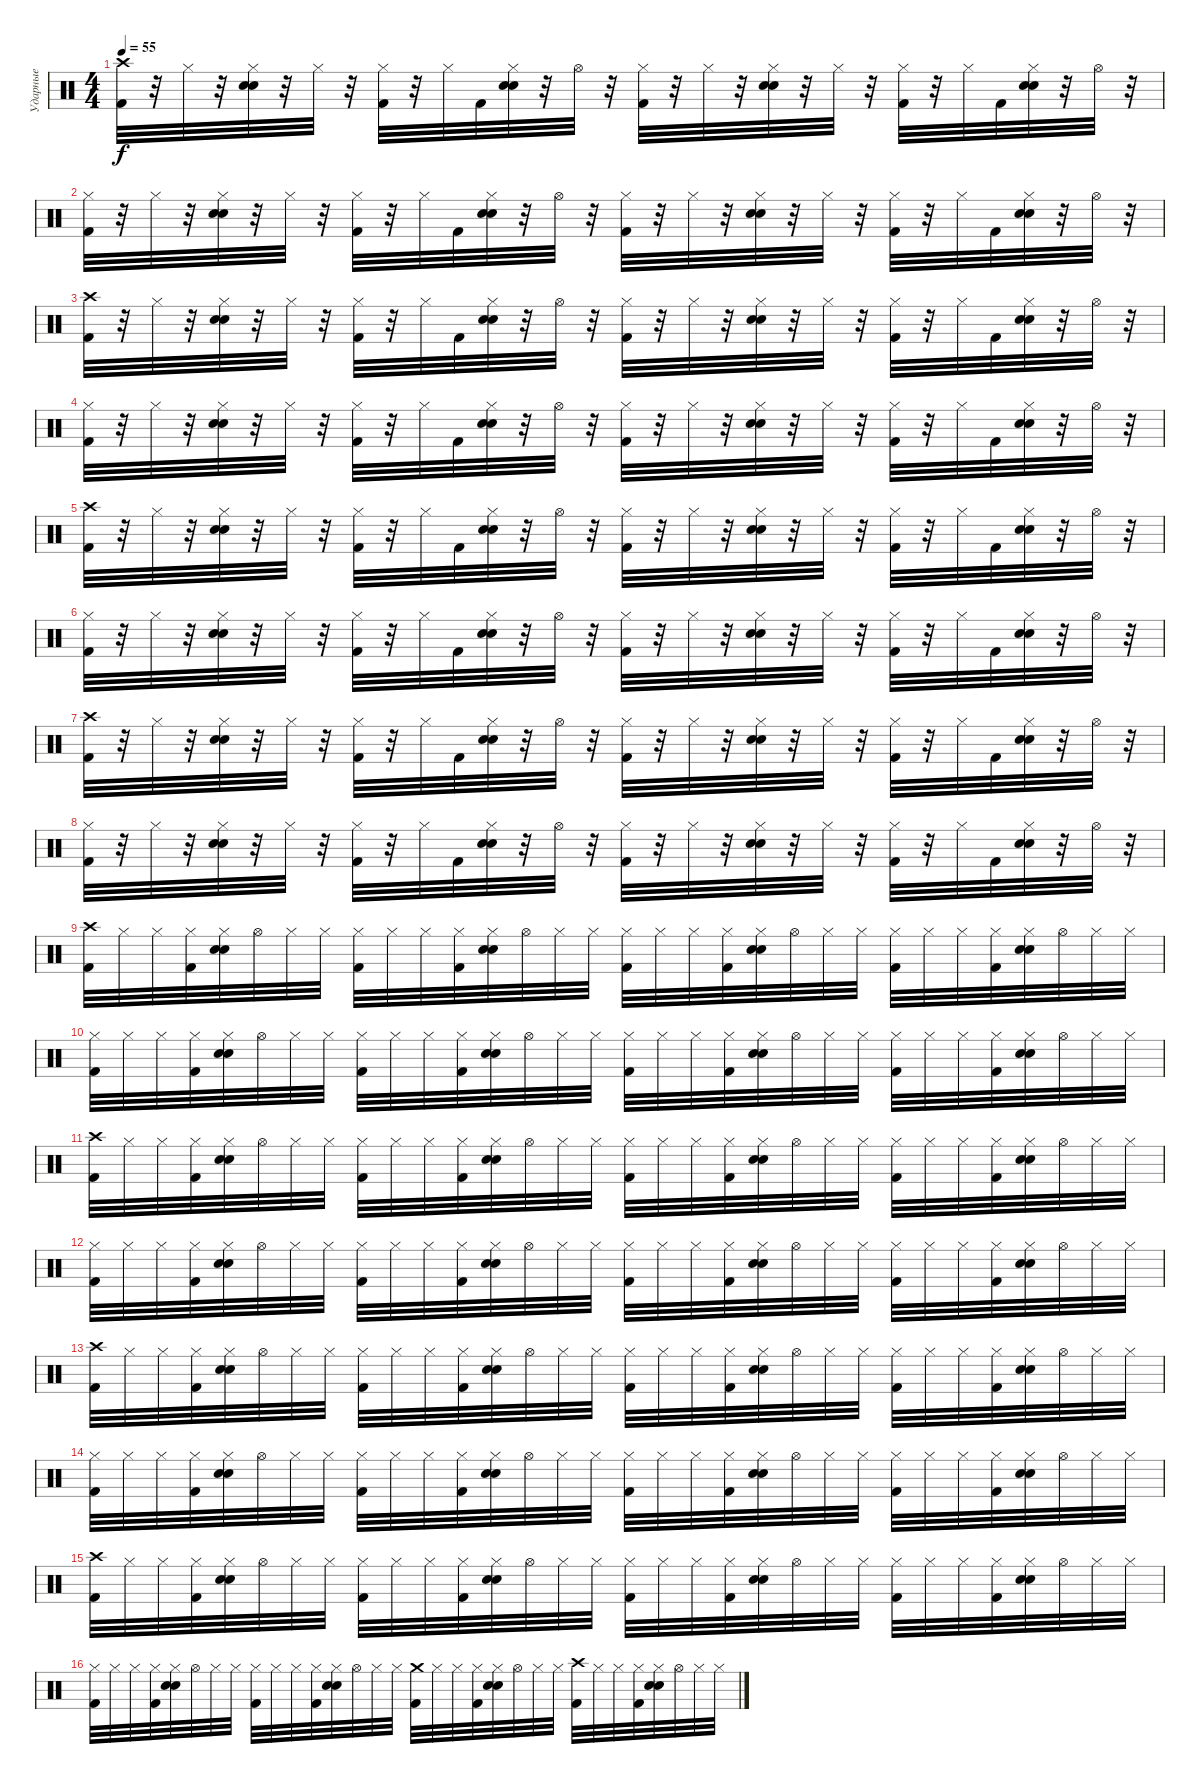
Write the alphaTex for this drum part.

\track ("Ударные" "Ударные") {instrument percussion}
\staff {score}
\articulation defaults
\ts (4 4)
\tempo 55
\clef neutral
\ks c
("Crash high (hit)" "Kick (hit) 2").32{dy f} r.32 "Hi-Hat (closed)".32 r.32 ("Hi-Hat (closed)" "Snare (hit) 2" "Electric Snare (hit)").32 r.32 "Hi-Hat (closed)".32 r.32 ("Hi-Hat (closed)" "Kick (hit) 2").32 r.32 "Hi-Hat (closed)".32 "Kick (hit) 2".32 ("Hi-Hat (closed)" "Snare (hit) 2" "Electric Snare (hit)").32 r.32 "Hi-Hat (open)".32 r.32 ("Hi-Hat (closed)" "Kick (hit) 2").32 r.32 "Hi-Hat (closed)".32 r.32 ("Hi-Hat (closed)" "Snare (hit) 2" "Electric Snare (hit)").32 r.32 "Hi-Hat (closed)".32 r.32 ("Hi-Hat (closed)" "Kick (hit) 2").32 r.32 "Hi-Hat (closed)".32 "Kick (hit) 2".32 ("Hi-Hat (closed)" "Snare (hit) 2" "Electric Snare (hit)").32 r.32 "Hi-Hat (open)".32 r.32 |
("Hi-Hat (closed)" "Kick (hit) 2").32 r.32 "Hi-Hat (closed)".32 r.32 ("Hi-Hat (closed)" "Snare (hit) 2" "Electric Snare (hit)").32 r.32 "Hi-Hat (closed)".32 r.32 ("Hi-Hat (closed)" "Kick (hit) 2").32 r.32 "Hi-Hat (closed)".32 "Kick (hit) 2".32 ("Hi-Hat (closed)" "Snare (hit) 2" "Electric Snare (hit)").32 r.32 "Hi-Hat (open)".32 r.32 ("Hi-Hat (closed)" "Kick (hit) 2").32 r.32 "Hi-Hat (closed)".32 r.32 ("Hi-Hat (closed)" "Snare (hit) 2" "Electric Snare (hit)").32 r.32 "Hi-Hat (closed)".32 r.32 ("Hi-Hat (closed)" "Kick (hit) 2").32 r.32 "Hi-Hat (closed)".32 "Kick (hit) 2".32 ("Hi-Hat (closed)" "Snare (hit) 2" "Electric Snare (hit)").32 r.32 "Hi-Hat (open)".32 r.32 |
("Crash high (hit)" "Kick (hit) 2").32 r.32 "Hi-Hat (closed)".32 r.32 ("Hi-Hat (closed)" "Snare (hit) 2" "Electric Snare (hit)").32 r.32 "Hi-Hat (closed)".32 r.32 ("Hi-Hat (closed)" "Kick (hit) 2").32 r.32 "Hi-Hat (closed)".32 "Kick (hit) 2".32 ("Hi-Hat (closed)" "Snare (hit) 2" "Electric Snare (hit)").32 r.32 "Hi-Hat (open)".32 r.32 ("Hi-Hat (closed)" "Kick (hit) 2").32 r.32 "Hi-Hat (closed)".32 r.32 ("Hi-Hat (closed)" "Snare (hit) 2" "Electric Snare (hit)").32 r.32 "Hi-Hat (closed)".32 r.32 ("Hi-Hat (closed)" "Kick (hit) 2").32 r.32 "Hi-Hat (closed)".32 "Kick (hit) 2".32 ("Hi-Hat (closed)" "Snare (hit) 2" "Electric Snare (hit)").32 r.32 "Hi-Hat (open)".32 r.32 |
("Hi-Hat (closed)" "Kick (hit) 2").32 r.32 "Hi-Hat (closed)".32 r.32 ("Hi-Hat (closed)" "Snare (hit) 2" "Electric Snare (hit)").32 r.32 "Hi-Hat (closed)".32 r.32 ("Hi-Hat (closed)" "Kick (hit) 2").32 r.32 "Hi-Hat (closed)".32 "Kick (hit) 2".32 ("Hi-Hat (closed)" "Snare (hit) 2" "Electric Snare (hit)").32 r.32 "Hi-Hat (open)".32 r.32 ("Hi-Hat (closed)" "Kick (hit) 2").32 r.32 "Hi-Hat (closed)".32 r.32 ("Hi-Hat (closed)" "Snare (hit) 2" "Electric Snare (hit)").32 r.32 "Hi-Hat (closed)".32 r.32 ("Hi-Hat (closed)" "Kick (hit) 2").32 r.32 "Hi-Hat (closed)".32 "Kick (hit) 2".32 ("Hi-Hat (closed)" "Snare (hit) 2" "Electric Snare (hit)").32 r.32 "Hi-Hat (open)".32 r.32 |
("Crash high (hit)" "Kick (hit) 2").32 r.32 "Hi-Hat (closed)".32 r.32 ("Hi-Hat (closed)" "Snare (hit) 2" "Electric Snare (hit)").32 r.32 "Hi-Hat (closed)".32 r.32 ("Hi-Hat (closed)" "Kick (hit) 2").32 r.32 "Hi-Hat (closed)".32 "Kick (hit) 2".32 ("Hi-Hat (closed)" "Snare (hit) 2" "Electric Snare (hit)").32 r.32 "Hi-Hat (open)".32 r.32 ("Hi-Hat (closed)" "Kick (hit) 2").32 r.32 "Hi-Hat (closed)".32 r.32 ("Hi-Hat (closed)" "Snare (hit) 2" "Electric Snare (hit)").32 r.32 "Hi-Hat (closed)".32 r.32 ("Hi-Hat (closed)" "Kick (hit) 2").32 r.32 "Hi-Hat (closed)".32 "Kick (hit) 2".32 ("Hi-Hat (closed)" "Snare (hit) 2" "Electric Snare (hit)").32 r.32 "Hi-Hat (open)".32 r.32 |
("Hi-Hat (closed)" "Kick (hit) 2").32 r.32 "Hi-Hat (closed)".32 r.32 ("Hi-Hat (closed)" "Snare (hit) 2" "Electric Snare (hit)").32 r.32 "Hi-Hat (closed)".32 r.32 ("Hi-Hat (closed)" "Kick (hit) 2").32 r.32 "Hi-Hat (closed)".32 "Kick (hit) 2".32 ("Hi-Hat (closed)" "Snare (hit) 2" "Electric Snare (hit)").32 r.32 "Hi-Hat (open)".32 r.32 ("Hi-Hat (closed)" "Kick (hit) 2").32 r.32 "Hi-Hat (closed)".32 r.32 ("Hi-Hat (closed)" "Snare (hit) 2" "Electric Snare (hit)").32 r.32 "Hi-Hat (closed)".32 r.32 ("Hi-Hat (closed)" "Kick (hit) 2").32 r.32 "Hi-Hat (closed)".32 "Kick (hit) 2".32 ("Hi-Hat (closed)" "Snare (hit) 2" "Electric Snare (hit)").32 r.32 "Hi-Hat (open)".32 r.32 |
("Crash high (hit)" "Kick (hit) 2").32 r.32 "Hi-Hat (closed)".32 r.32 ("Hi-Hat (closed)" "Snare (hit) 2" "Electric Snare (hit)").32 r.32 "Hi-Hat (closed)".32 r.32 ("Hi-Hat (closed)" "Kick (hit) 2").32 r.32 "Hi-Hat (closed)".32 "Kick (hit) 2".32 ("Hi-Hat (closed)" "Snare (hit) 2" "Electric Snare (hit)").32 r.32 "Hi-Hat (open)".32 r.32 ("Hi-Hat (closed)" "Kick (hit) 2").32 r.32 "Hi-Hat (closed)".32 r.32 ("Hi-Hat (closed)" "Snare (hit) 2" "Electric Snare (hit)").32 r.32 "Hi-Hat (closed)".32 r.32 ("Hi-Hat (closed)" "Kick (hit) 2").32 r.32 "Hi-Hat (closed)".32 "Kick (hit) 2".32 ("Hi-Hat (closed)" "Snare (hit) 2" "Electric Snare (hit)").32 r.32 "Hi-Hat (open)".32 r.32 |
("Hi-Hat (closed)" "Kick (hit) 2").32 r.32 "Hi-Hat (closed)".32 r.32 ("Hi-Hat (closed)" "Snare (hit) 2" "Electric Snare (hit)").32 r.32 "Hi-Hat (closed)".32 r.32 ("Hi-Hat (closed)" "Kick (hit) 2").32 r.32 "Hi-Hat (closed)".32 "Kick (hit) 2".32 ("Hi-Hat (closed)" "Snare (hit) 2" "Electric Snare (hit)").32 r.32 "Hi-Hat (open)".32 r.32 ("Hi-Hat (closed)" "Kick (hit) 2").32 r.32 "Hi-Hat (closed)".32 r.32 ("Hi-Hat (closed)" "Snare (hit) 2" "Electric Snare (hit)").32 r.32 "Hi-Hat (closed)".32 r.32 ("Hi-Hat (closed)" "Kick (hit) 2").32 r.32 "Hi-Hat (closed)".32 "Kick (hit) 2".32 ("Hi-Hat (closed)" "Snare (hit) 2" "Electric Snare (hit)").32 r.32 "Hi-Hat (open)".32 r.32 |
("Crash high (hit)" "Kick (hit) 2").32 "Hi-Hat (closed)".32 "Hi-Hat (closed)".32 ("Hi-Hat (closed)" "Kick (hit) 2").32 ("Hi-Hat (closed)" "Snare (hit) 2" "Electric Snare (hit)").32 "Hi-Hat (open)".32 "Hi-Hat (closed)".32 "Hi-Hat (closed)".32 ("Hi-Hat (closed)" "Kick (hit) 2").32 "Hi-Hat (closed)".32 "Hi-Hat (closed)".32 ("Hi-Hat (closed)" "Kick (hit) 2").32 ("Hi-Hat (closed)" "Snare (hit) 2" "Electric Snare (hit)").32 "Hi-Hat (open)".32 "Hi-Hat (closed)".32 "Hi-Hat (closed)".32 ("Hi-Hat (closed)" "Kick (hit) 2").32 "Hi-Hat (closed)".32 "Hi-Hat (closed)".32 ("Hi-Hat (closed)" "Kick (hit) 2").32 ("Hi-Hat (closed)" "Snare (hit) 2" "Electric Snare (hit)").32 "Hi-Hat (open)".32 "Hi-Hat (closed)".32 "Hi-Hat (closed)".32 ("Hi-Hat (closed)" "Kick (hit) 2").32 "Hi-Hat (closed)".32 "Hi-Hat (closed)".32 ("Hi-Hat (closed)" "Kick (hit) 2").32 ("Hi-Hat (closed)" "Snare (hit) 2" "Electric Snare (hit)").32 "Hi-Hat (open)".32 "Hi-Hat (closed)".32 "Hi-Hat (closed)".32 |
("Hi-Hat (closed)" "Kick (hit) 2").32 "Hi-Hat (closed)".32 "Hi-Hat (closed)".32 ("Hi-Hat (closed)" "Kick (hit) 2").32 ("Hi-Hat (closed)" "Snare (hit) 2" "Electric Snare (hit)").32 "Hi-Hat (open)".32 "Hi-Hat (closed)".32 "Hi-Hat (closed)".32 ("Hi-Hat (closed)" "Kick (hit) 2").32 "Hi-Hat (closed)".32 "Hi-Hat (closed)".32 ("Hi-Hat (closed)" "Kick (hit) 2").32 ("Hi-Hat (closed)" "Snare (hit) 2" "Electric Snare (hit)").32 "Hi-Hat (open)".32 "Hi-Hat (closed)".32 "Hi-Hat (closed)".32 ("Hi-Hat (closed)" "Kick (hit) 2").32 "Hi-Hat (closed)".32 "Hi-Hat (closed)".32 ("Hi-Hat (closed)" "Kick (hit) 2").32 ("Hi-Hat (closed)" "Snare (hit) 2" "Electric Snare (hit)").32 "Hi-Hat (open)".32 "Hi-Hat (closed)".32 "Hi-Hat (closed)".32 ("Hi-Hat (closed)" "Kick (hit) 2").32 "Hi-Hat (closed)".32 "Hi-Hat (closed)".32 ("Hi-Hat (closed)" "Kick (hit) 2").32 ("Hi-Hat (closed)" "Snare (hit) 2" "Electric Snare (hit)").32 "Hi-Hat (open)".32 "Hi-Hat (closed)".32 "Hi-Hat (closed)".32 |
("Crash high (hit)" "Kick (hit) 2").32 "Hi-Hat (closed)".32 "Hi-Hat (closed)".32 ("Hi-Hat (closed)" "Kick (hit) 2").32 ("Hi-Hat (closed)" "Snare (hit) 2" "Electric Snare (hit)").32 "Hi-Hat (open)".32 "Hi-Hat (closed)".32 "Hi-Hat (closed)".32 ("Hi-Hat (closed)" "Kick (hit) 2").32 "Hi-Hat (closed)".32 "Hi-Hat (closed)".32 ("Hi-Hat (closed)" "Kick (hit) 2").32 ("Hi-Hat (closed)" "Snare (hit) 2" "Electric Snare (hit)").32 "Hi-Hat (open)".32 "Hi-Hat (closed)".32 "Hi-Hat (closed)".32 ("Hi-Hat (closed)" "Kick (hit) 2").32 "Hi-Hat (closed)".32 "Hi-Hat (closed)".32 ("Hi-Hat (closed)" "Kick (hit) 2").32 ("Hi-Hat (closed)" "Snare (hit) 2" "Electric Snare (hit)").32 "Hi-Hat (open)".32 "Hi-Hat (closed)".32 "Hi-Hat (closed)".32 ("Hi-Hat (closed)" "Kick (hit) 2").32 "Hi-Hat (closed)".32 "Hi-Hat (closed)".32 ("Hi-Hat (closed)" "Kick (hit) 2").32 ("Hi-Hat (closed)" "Snare (hit) 2" "Electric Snare (hit)").32 "Hi-Hat (open)".32 "Hi-Hat (closed)".32 "Hi-Hat (closed)".32 |
("Hi-Hat (closed)" "Kick (hit) 2").32 "Hi-Hat (closed)".32 "Hi-Hat (closed)".32 ("Hi-Hat (closed)" "Kick (hit) 2").32 ("Hi-Hat (closed)" "Snare (hit) 2" "Electric Snare (hit)").32 "Hi-Hat (open)".32 "Hi-Hat (closed)".32 "Hi-Hat (closed)".32 ("Hi-Hat (closed)" "Kick (hit) 2").32 "Hi-Hat (closed)".32 "Hi-Hat (closed)".32 ("Hi-Hat (closed)" "Kick (hit) 2").32 ("Hi-Hat (closed)" "Snare (hit) 2" "Electric Snare (hit)").32 "Hi-Hat (open)".32 "Hi-Hat (closed)".32 "Hi-Hat (closed)".32 ("Hi-Hat (closed)" "Kick (hit) 2").32 "Hi-Hat (closed)".32 "Hi-Hat (closed)".32 ("Hi-Hat (closed)" "Kick (hit) 2").32 ("Hi-Hat (closed)" "Snare (hit) 2" "Electric Snare (hit)").32 "Hi-Hat (open)".32 "Hi-Hat (closed)".32 "Hi-Hat (closed)".32 ("Hi-Hat (closed)" "Kick (hit) 2").32 "Hi-Hat (closed)".32 "Hi-Hat (closed)".32 ("Hi-Hat (closed)" "Kick (hit) 2").32 ("Hi-Hat (closed)" "Snare (hit) 2" "Electric Snare (hit)").32 "Hi-Hat (open)".32 "Hi-Hat (closed)".32 "Hi-Hat (closed)".32 |
("Crash high (hit)" "Kick (hit) 2").32 "Hi-Hat (closed)".32 "Hi-Hat (closed)".32 ("Hi-Hat (closed)" "Kick (hit) 2").32 ("Hi-Hat (closed)" "Snare (hit) 2" "Electric Snare (hit)").32 "Hi-Hat (open)".32 "Hi-Hat (closed)".32 "Hi-Hat (closed)".32 ("Hi-Hat (closed)" "Kick (hit) 2").32 "Hi-Hat (closed)".32 "Hi-Hat (closed)".32 ("Hi-Hat (closed)" "Kick (hit) 2").32 ("Hi-Hat (closed)" "Snare (hit) 2" "Electric Snare (hit)").32 "Hi-Hat (open)".32 "Hi-Hat (closed)".32 "Hi-Hat (closed)".32 ("Hi-Hat (closed)" "Kick (hit) 2").32 "Hi-Hat (closed)".32 "Hi-Hat (closed)".32 ("Hi-Hat (closed)" "Kick (hit) 2").32 ("Hi-Hat (closed)" "Snare (hit) 2" "Electric Snare (hit)").32 "Hi-Hat (open)".32 "Hi-Hat (closed)".32 "Hi-Hat (closed)".32 ("Hi-Hat (closed)" "Kick (hit) 2").32 "Hi-Hat (closed)".32 "Hi-Hat (closed)".32 ("Hi-Hat (closed)" "Kick (hit) 2").32 ("Hi-Hat (closed)" "Snare (hit) 2" "Electric Snare (hit)").32 "Hi-Hat (open)".32 "Hi-Hat (closed)".32 "Hi-Hat (closed)".32 |
("Hi-Hat (closed)" "Kick (hit) 2").32 "Hi-Hat (closed)".32 "Hi-Hat (closed)".32 ("Hi-Hat (closed)" "Kick (hit) 2").32 ("Hi-Hat (closed)" "Snare (hit) 2" "Electric Snare (hit)").32 "Hi-Hat (open)".32 "Hi-Hat (closed)".32 "Hi-Hat (closed)".32 ("Hi-Hat (closed)" "Kick (hit) 2").32 "Hi-Hat (closed)".32 "Hi-Hat (closed)".32 ("Hi-Hat (closed)" "Kick (hit) 2").32 ("Hi-Hat (closed)" "Snare (hit) 2" "Electric Snare (hit)").32 "Hi-Hat (open)".32 "Hi-Hat (closed)".32 "Hi-Hat (closed)".32 ("Hi-Hat (closed)" "Kick (hit) 2").32 "Hi-Hat (closed)".32 "Hi-Hat (closed)".32 ("Hi-Hat (closed)" "Kick (hit) 2").32 ("Hi-Hat (closed)" "Snare (hit) 2" "Electric Snare (hit)").32 "Hi-Hat (open)".32 "Hi-Hat (closed)".32 "Hi-Hat (closed)".32 ("Hi-Hat (closed)" "Kick (hit) 2").32 "Hi-Hat (closed)".32 "Hi-Hat (closed)".32 ("Hi-Hat (closed)" "Kick (hit) 2").32 ("Hi-Hat (closed)" "Snare (hit) 2" "Electric Snare (hit)").32 "Hi-Hat (open)".32 "Hi-Hat (closed)".32 "Hi-Hat (closed)".32 |
("Crash high (hit)" "Kick (hit) 2").32 "Hi-Hat (closed)".32 "Hi-Hat (closed)".32 ("Hi-Hat (closed)" "Kick (hit) 2").32 ("Hi-Hat (closed)" "Snare (hit) 2" "Electric Snare (hit)").32 "Hi-Hat (open)".32 "Hi-Hat (closed)".32 "Hi-Hat (closed)".32 ("Hi-Hat (closed)" "Kick (hit) 2").32 "Hi-Hat (closed)".32 "Hi-Hat (closed)".32 ("Hi-Hat (closed)" "Kick (hit) 2").32 ("Hi-Hat (closed)" "Snare (hit) 2" "Electric Snare (hit)").32 "Hi-Hat (open)".32 "Hi-Hat (closed)".32 "Hi-Hat (closed)".32 ("Hi-Hat (closed)" "Kick (hit) 2").32 "Hi-Hat (closed)".32 "Hi-Hat (closed)".32 ("Hi-Hat (closed)" "Kick (hit) 2").32 ("Hi-Hat (closed)" "Snare (hit) 2" "Electric Snare (hit)").32 "Hi-Hat (open)".32 "Hi-Hat (closed)".32 "Hi-Hat (closed)".32 ("Hi-Hat (closed)" "Kick (hit) 2").32 "Hi-Hat (closed)".32 "Hi-Hat (closed)".32 ("Hi-Hat (closed)" "Kick (hit) 2").32 ("Hi-Hat (closed)" "Snare (hit) 2" "Electric Snare (hit)").32 "Hi-Hat (open)".32 "Hi-Hat (closed)".32 "Hi-Hat (closed)".32 |
("Hi-Hat (closed)" "Kick (hit) 2").32 "Hi-Hat (closed)".32 "Hi-Hat (closed)".32 ("Hi-Hat (closed)" "Kick (hit) 2").32 ("Hi-Hat (closed)" "Snare (hit) 2" "Electric Snare (hit)").32 "Hi-Hat (open)".32 "Hi-Hat (closed)".32 "Hi-Hat (closed)".32 ("Hi-Hat (closed)" "Kick (hit) 2").32 "Hi-Hat (closed)".32 "Hi-Hat (closed)".32 ("Hi-Hat (closed)" "Kick (hit) 2").32 ("Hi-Hat (closed)" "Snare (hit) 2" "Electric Snare (hit)").32 "Hi-Hat (open)".32 "Hi-Hat (closed)".32 "Hi-Hat (closed)".32 ("Crash medium (hit)" "Kick (hit) 2").32 "Hi-Hat (closed)".32 "Hi-Hat (closed)".32 ("Hi-Hat (closed)" "Kick (hit) 2").32 ("Hi-Hat (closed)" "Snare (hit) 2" "Electric Snare (hit)").32 "Hi-Hat (open)".32 "Hi-Hat (closed)".32 "Hi-Hat (closed)".32 ("Crash high (hit)" "Kick (hit) 2").32 "Hi-Hat (closed)".32 "Hi-Hat (closed)".32 ("Hi-Hat (closed)" "Kick (hit) 2").32 ("Hi-Hat (closed)" "Snare (hit) 2" "Electric Snare (hit)").32 "Hi-Hat (open)".32 "Hi-Hat (closed)".32 "Hi-Hat (closed)".32
